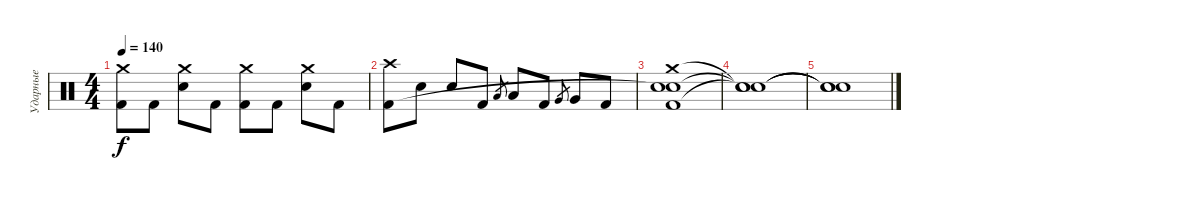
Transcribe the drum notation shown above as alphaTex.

\track ("Ударные" "Ударные") {instrument percussion}
\staff {score}
\articulation defaults
\ts (4 4)
\tempo 140
\clef neutral
\ks c
("Crash medium (hit)" "Kick (hit) 2").8{dy f} "Kick (hit) 2".8 ("Electric Snare (hit)" "Crash medium (hit)").8 "Kick (hit) 2".8 ("Kick (hit) 2" "Crash medium (hit)").8 "Kick (hit) 2".8 ("Electric Snare (hit)" "Crash medium (hit)").8 "Kick (hit) 2".8 |
("Crash high (hit)" "Kick (hit) 2").8 "Electric Snare (hit)".8 "Electric Snare (hit)".8 "Kick (hit) 2".8 "Low Tom (hit)".8{gr} "Low Tom (hit)".8 "Kick (hit) 2".8 "Very Low Tom (hit)".8{gr} "Very Low Tom (hit)".8 "Kick (hit) 2".8 |
("Crash medium (hit)" "Snare (hit)"{t} "Kick (hit) 2" "Snare (hit)").1 |
("Snare (hit)"{t} "Snare (hit)"{t} "Snare (hit)"{t}).1 |
("Snare (hit)"{t} "Snare (hit)"{t} "Snare (hit)"{t}).1
